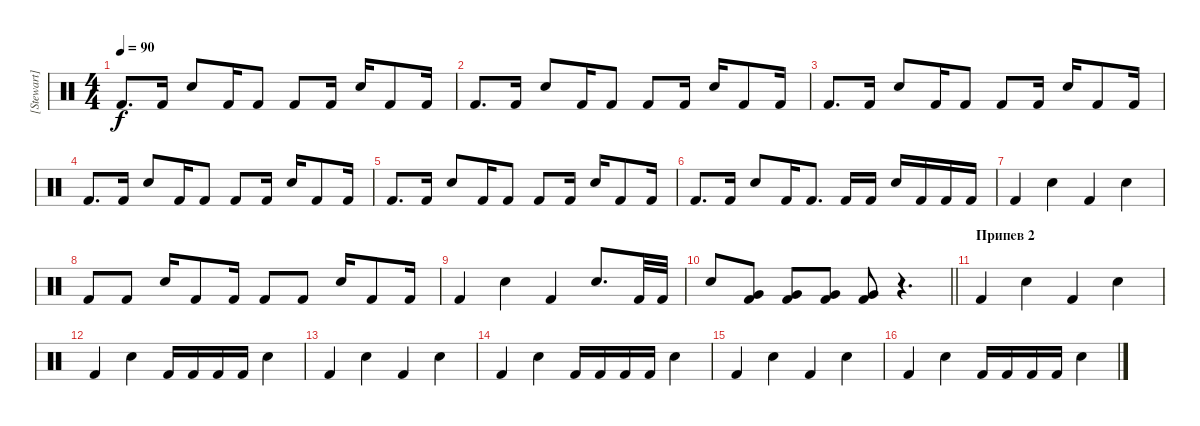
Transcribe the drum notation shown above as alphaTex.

\track ("[Stewart] (drums)" "[Stewart] ") {instrument percussion}
\staff {score}
\articulation defaults
\ts (4 4)
\tempo 90
\clef neutral
\ks c "Kick (hit) 2".8{d dy f} "Kick (hit) 2".16 "Snare (hit) 2".8 "Kick (hit) 2".16 "Kick (hit) 2".8 "Kick (hit) 2".8 "Kick (hit) 2".16 "Snare (hit) 2".16 "Kick (hit) 2".8 "Kick (hit) 2".16
|
"Kick (hit) 2".8{d} "Kick (hit) 2".16 "Snare (hit) 2".8 "Kick (hit) 2".16 "Kick (hit) 2".8 "Kick (hit) 2".8 "Kick (hit) 2".16 "Snare (hit) 2".16 "Kick (hit) 2".8 "Kick (hit) 2".16 |
"Kick (hit) 2".8{d} "Kick (hit) 2".16 "Snare (hit) 2".8 "Kick (hit) 2".16 "Kick (hit) 2".8 "Kick (hit) 2".8 "Kick (hit) 2".16 "Snare (hit) 2".16 "Kick (hit) 2".8 "Kick (hit) 2".16 |
"Kick (hit) 2".8{d} "Kick (hit) 2".16 "Snare (hit) 2".8 "Kick (hit) 2".16 "Kick (hit) 2".8 "Kick (hit) 2".8 "Kick (hit) 2".16 "Snare (hit) 2".16 "Kick (hit) 2".8 "Kick (hit) 2".16 |
"Kick (hit) 2".8{d} "Kick (hit) 2".16 "Snare (hit) 2".8 "Kick (hit) 2".16 "Kick (hit) 2".8 "Kick (hit) 2".8 "Kick (hit) 2".16 "Snare (hit) 2".16 "Kick (hit) 2".8 "Kick (hit) 2".16 |
"Kick (hit) 2".8{d} "Kick (hit) 2".16 "Snare (hit) 2".8 "Kick (hit) 2".16 "Kick (hit) 2".8{d} "Kick (hit) 2".16 "Kick (hit) 2".16 "Snare (hit) 2".16 "Kick (hit) 2".16 "Kick (hit) 2".16 "Kick (hit) 2".16 |
"Kick (hit) 2".4 "Snare (hit) 2".4 "Kick (hit) 2".4 "Snare (hit) 2".4 |
"Kick (hit) 2".8 "Kick (hit) 2".8 "Snare (hit) 2".16 "Kick (hit) 2".8 "Kick (hit) 2".16 "Kick (hit) 2".8 "Kick (hit) 2".8 "Snare (hit) 2".16 "Kick (hit) 2".8 "Kick (hit) 2".16 |
"Kick (hit) 2".4 "Snare (hit) 2".4 "Kick (hit) 2".4 "Snare (hit) 2".8{d} "Kick (hit) 2".32 "Kick (hit) 2".32 |
\barLineRight lightlight "Snare (hit) 2".8
("Kick (hit) 2" "Very Low Tom (hit)").8 ("Kick (hit) 2" "Very Low Tom (hit)").8 ("Kick (hit) 2" "Very Low Tom (hit)").8 ("Kick (hit) 2" "Very Low Tom (hit)").8 r.4{d} |
\section ("" "Припев 2")
"Kick (hit) 2".4 "Snare (hit) 2".4 "Kick (hit) 2".4 "Snare (hit) 2".4 |
"Kick (hit) 2".4 "Snare (hit) 2".4 "Kick (hit) 2".16 "Kick (hit) 2".16 "Kick (hit) 2".16 "Kick (hit) 2".16 "Snare (hit) 2".4 |
"Kick (hit) 2".4 "Snare (hit) 2".4 "Kick (hit) 2".4 "Snare (hit) 2".4 |
"Kick (hit) 2".4 "Snare (hit) 2".4 "Kick (hit) 2".16 "Kick (hit) 2".16 "Kick (hit) 2".16 "Kick (hit) 2".16 "Snare (hit) 2".4 |
"Kick (hit) 2".4 "Snare (hit) 2".4 "Kick (hit) 2".4 "Snare (hit) 2".4 |
"Kick (hit) 2".4 "Snare (hit) 2".4 "Kick (hit) 2".16 "Kick (hit) 2".16 "Kick (hit) 2".16 "Kick (hit) 2".16 "Snare (hit) 2".4
